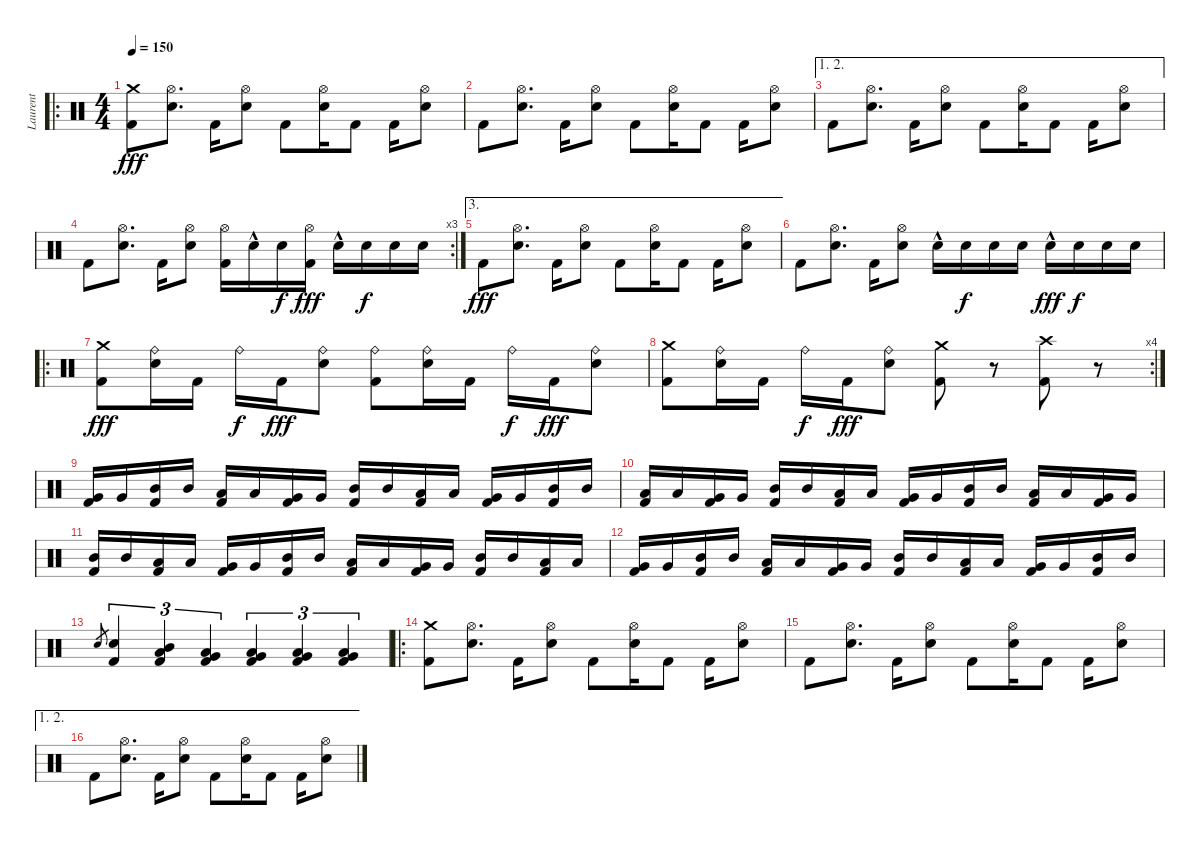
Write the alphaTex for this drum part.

\track ("Laurent" "Laurent") {instrument percussion}
\staff {score}
\articulation defaults
\ro
\ts (4 4)
\tempo 150
\clef neutral
\ks c
("Crash medium (hit)" "Kick (hit) 2").8{dy fff} ("Hi-Hat (open)" "Electric Snare (hit)").8{d} "Kick (hit) 2".16 ("Hi-Hat (open)" "Electric Snare (hit)").8 "Kick (hit) 2".8 ("Hi-Hat (open)" "Electric Snare (hit)").16 "Kick (hit) 2".8 "Kick (hit) 2".16 ("Hi-Hat (open)" "Electric Snare (hit)").8 |
"Kick (hit) 2".8 ("Hi-Hat (open)" "Electric Snare (hit)").8{d} "Kick (hit) 2".16 ("Hi-Hat (open)" "Electric Snare (hit)").8 "Kick (hit) 2".8 ("Hi-Hat (open)" "Electric Snare (hit)").16 "Kick (hit) 2".8 "Kick (hit) 2".16 ("Hi-Hat (open)" "Electric Snare (hit)").8 |
\ae (1 2)
"Kick (hit) 2".8 ("Hi-Hat (open)" "Electric Snare (hit)").8{d} "Kick (hit) 2".16 ("Hi-Hat (open)" "Electric Snare (hit)").8 "Kick (hit) 2".8 ("Hi-Hat (open)" "Electric Snare (hit)").16 "Kick (hit) 2".8 "Kick (hit) 2".16 ("Hi-Hat (open)" "Electric Snare (hit)").8 |
\rc 3 "Kick (hit) 2".8
("Hi-Hat (open)" "Electric Snare (hit)").8{d} "Kick (hit) 2".16 ("Hi-Hat (open)" "Electric Snare (hit)").8 ("Hi-Hat (open)" "Kick (hit) 2").16 "Electric Snare (hit)"{hac}.16 "Electric Snare (hit)".16{dy f} ("Hi-Hat (open)" "Kick (hit) 2").16{dy fff} "Electric Snare (hit)"{hac}.16 "Electric Snare (hit)".16{dy f} "Electric Snare (hit)".16 "Electric Snare (hit)".16 |
\ae 3 "Kick (hit) 2".8{dy fff}
("Hi-Hat (open)" "Electric Snare (hit)").8{d} "Kick (hit) 2".16 ("Hi-Hat (open)" "Electric Snare (hit)").8 "Kick (hit) 2".8 ("Hi-Hat (open)" "Electric Snare (hit)").16 "Kick (hit) 2".8 "Kick (hit) 2".16 ("Hi-Hat (open)" "Electric Snare (hit)").8 |
"Kick (hit) 2".8 ("Hi-Hat (open)" "Electric Snare (hit)").8{d} "Kick (hit) 2".16 ("Hi-Hat (open)" "Electric Snare (hit)").8 "Electric Snare (hit)"{hac}.16 "Electric Snare (hit)".16{dy f} "Electric Snare (hit)".16 "Electric Snare (hit)".16 "Electric Snare (hit)"{hac}.16{dy fff} "Electric Snare (hit)".16{dy f} "Electric Snare (hit)".16 "Electric Snare (hit)".16 |
\ro
("Crash medium (hit)" "Kick (hit) 2").8{dy fff} ("Ride (bell)" "Electric Snare (hit)").16 "Kick (hit) 2".16 "Ride (bell)".16{dy f} "Kick (hit) 2".16{dy fff} ("Ride (bell)" "Electric Snare (hit)").8 ("Ride (bell)" "Kick (hit) 2").8 ("Ride (bell)" "Electric Snare (hit)").16 "Kick (hit) 2".16 "Ride (bell)".16{dy f} "Kick (hit) 2".16{dy fff} ("Ride (bell)" "Electric Snare (hit)").8 |
\rc 4
("Crash medium (hit)" "Kick (hit) 2").8 ("Ride (bell)" "Electric Snare (hit)").16 "Kick (hit) 2".16 "Ride (bell)".16{dy f} "Kick (hit) 2".16{dy fff} ("Ride (bell)" "Electric Snare (hit)").8 ("Crash medium (hit)" "Kick (hit) 2").8 r.8 ("Crash high (hit)" "Kick (hit) 2").8 r.8 |
("Very Low Tom (hit)" "Kick (hit) 2").16 "Very Low Tom (hit)".16 ("Mid Tom (hit)" "Kick (hit) 2").16 "Mid Tom (hit)".16 ("Low Tom (hit)" "Kick (hit) 2").16 "Low Tom (hit)".16 ("Very Low Tom (hit)" "Kick (hit) 2").16 "Very Low Tom (hit)".16 ("Mid Tom (hit)" "Kick (hit) 2").16 "Mid Tom (hit)".16 ("Low Tom (hit)" "Kick (hit) 2").16 "Low Tom (hit)".16 ("Very Low Tom (hit)" "Kick (hit) 2").16 "Very Low Tom (hit)".16 ("Mid Tom (hit)" "Kick (hit) 2").16 "Mid Tom (hit)".16 |
("Low Tom (hit)" "Kick (hit) 2").16 "Low Tom (hit)".16 ("Very Low Tom (hit)" "Kick (hit) 2").16 "Very Low Tom (hit)".16 ("Mid Tom (hit)" "Kick (hit) 2").16 "Mid Tom (hit)".16 ("Low Tom (hit)" "Kick (hit) 2").16 "Low Tom (hit)".16 ("Very Low Tom (hit)" "Kick (hit) 2").16 "Very Low Tom (hit)".16 ("Mid Tom (hit)" "Kick (hit) 2").16 "Mid Tom (hit)".16 ("Low Tom (hit)" "Kick (hit) 2").16 "Low Tom (hit)".16 ("Very Low Tom (hit)" "Kick (hit) 2").16 "Very Low Tom (hit)".16 |
("Mid Tom (hit)" "Kick (hit) 2").16 "Mid Tom (hit)".16 ("Low Tom (hit)" "Kick (hit) 2").16 "Low Tom (hit)".16 ("Very Low Tom (hit)" "Kick (hit) 2").16 "Very Low Tom (hit)".16 ("Mid Tom (hit)" "Kick (hit) 2").16 "Mid Tom (hit)".16 ("Low Tom (hit)" "Kick (hit) 2").16 "Low Tom (hit)".16 ("Very Low Tom (hit)" "Kick (hit) 2").16 "Very Low Tom (hit)".16 ("Mid Tom (hit)" "Kick (hit) 2").16 "Mid Tom (hit)".16 ("Low Tom (hit)" "Kick (hit) 2").16 "Low Tom (hit)".16 |
("Very Low Tom (hit)" "Kick (hit) 2").16 "Very Low Tom (hit)".16 ("Mid Tom (hit)" "Kick (hit) 2").16 "Mid Tom (hit)".16 ("Low Tom (hit)" "Kick (hit) 2").16 "Low Tom (hit)".16 ("Very Low Tom (hit)" "Kick (hit) 2").16 "Very Low Tom (hit)".16 ("Mid Tom (hit)" "Kick (hit) 2").16 "Mid Tom (hit)".16 ("Low Tom (hit)" "Kick (hit) 2").16 "Low Tom (hit)".16 ("Very Low Tom (hit)" "Kick (hit) 2").16 "Very Low Tom (hit)".16 ("Mid Tom (hit)" "Kick (hit) 2").16 "Mid Tom (hit)".16 |
"Electric Snare (hit)".8{gr} ("Electric Snare (hit)" "Kick (hit) 2").4{tu (3 2)} ("Mid Tom (hit)" "Low Tom (hit)" "Kick (hit) 2").4{tu (3 2)} ("Low Tom (hit)" "Very Low Tom (hit)" "Kick (hit) 2").4{tu (3 2)} ("Low Floor Tom (hit)" "Very Low Tom (hit)" "Kick (hit) 2").4{tu (3 2)} ("Low Tom (hit)" "Very Low Tom (hit)" "Kick (hit) 2").4{tu (3 2)} ("Low Floor Tom (hit)" "Very Low Tom (hit)" "Kick (hit) 2").4{tu (3 2)} |
\ro
("Crash medium (hit)" "Kick (hit) 2").8 ("Hi-Hat (open)" "Electric Snare (hit)").8{d} "Kick (hit) 2".16 ("Hi-Hat (open)" "Electric Snare (hit)").8 "Kick (hit) 2".8 ("Hi-Hat (open)" "Electric Snare (hit)").16 "Kick (hit) 2".8 "Kick (hit) 2".16 ("Hi-Hat (open)" "Electric Snare (hit)").8 |
"Kick (hit) 2".8 ("Hi-Hat (open)" "Electric Snare (hit)").8{d} "Kick (hit) 2".16 ("Hi-Hat (open)" "Electric Snare (hit)").8 "Kick (hit) 2".8 ("Hi-Hat (open)" "Electric Snare (hit)").16 "Kick (hit) 2".8 "Kick (hit) 2".16 ("Hi-Hat (open)" "Electric Snare (hit)").8 |
\ae (1 2)
"Kick (hit) 2".8 ("Hi-Hat (open)" "Electric Snare (hit)").8{d} "Kick (hit) 2".16 ("Hi-Hat (open)" "Electric Snare (hit)").8 "Kick (hit) 2".8 ("Hi-Hat (open)" "Electric Snare (hit)").16 "Kick (hit) 2".8 "Kick (hit) 2".16 ("Hi-Hat (open)" "Electric Snare (hit)").8
